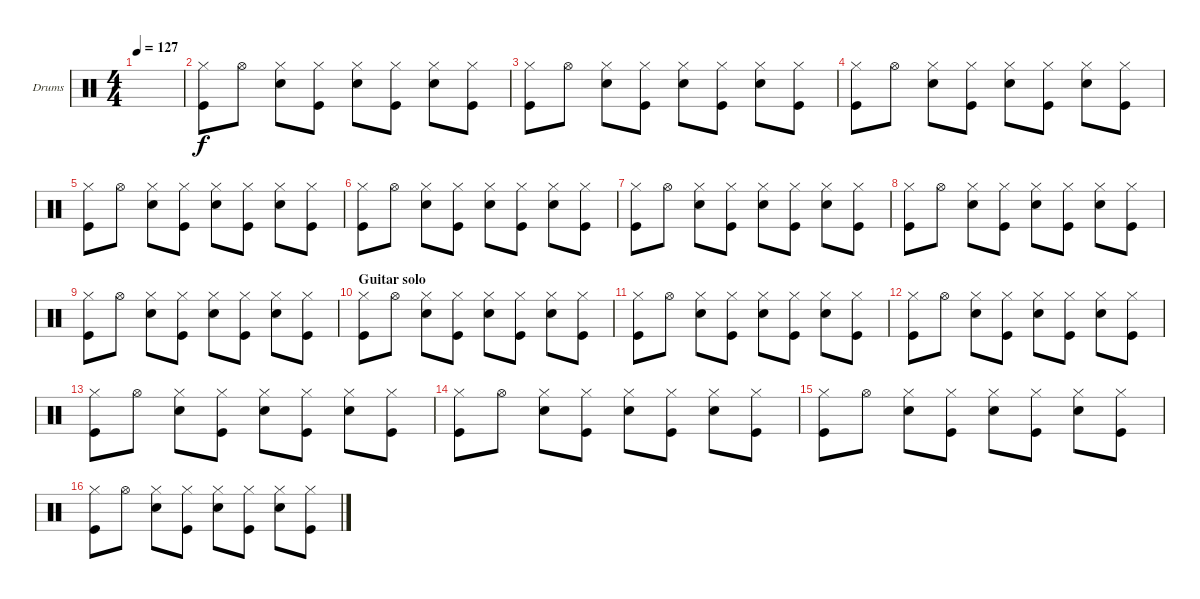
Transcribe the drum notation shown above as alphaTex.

\bracketExtendMode groupsimilarinstruments
\firstSystemTrackNameOrientation horizontal
\otherSystemsTrackNameOrientation horizontal
\track ("Drumkit" "Drums") {instrument percussion}
\staff {score}
\articulation defaults
\ts (4 4)
\tempo 127
\clef neutral
\ks c
|
("Hi-Hat (closed)" "Kick (hit)").8 "Hi-Hat (open)".8 ("Hi-Hat (closed)" "Snare (hit) 2").8 ("Hi-Hat (closed)" "Kick (hit)").8 ("Hi-Hat (closed)" "Snare (hit) 2").8 ("Hi-Hat (closed)" "Kick (hit)").8 ("Hi-Hat (closed)" "Snare (hit) 2").8 ("Hi-Hat (closed)" "Kick (hit)").8 |
("Hi-Hat (closed)" "Kick (hit)").8 "Hi-Hat (open)".8 ("Hi-Hat (closed)" "Snare (hit) 2").8 ("Hi-Hat (closed)" "Kick (hit)").8 ("Hi-Hat (closed)" "Snare (hit) 2").8 ("Hi-Hat (closed)" "Kick (hit)").8 ("Hi-Hat (closed)" "Snare (hit) 2").8 ("Hi-Hat (closed)" "Kick (hit)").8 |
("Hi-Hat (closed)" "Kick (hit)").8 "Hi-Hat (open)".8 ("Hi-Hat (closed)" "Snare (hit) 2").8 ("Hi-Hat (closed)" "Kick (hit)").8 ("Hi-Hat (closed)" "Snare (hit) 2").8 ("Hi-Hat (closed)" "Kick (hit)").8 ("Hi-Hat (closed)" "Snare (hit) 2").8 ("Hi-Hat (closed)" "Kick (hit)").8 |
("Hi-Hat (closed)" "Kick (hit)").8 "Hi-Hat (open)".8 ("Hi-Hat (closed)" "Snare (hit) 2").8 ("Hi-Hat (closed)" "Kick (hit)").8 ("Hi-Hat (closed)" "Snare (hit) 2").8 ("Hi-Hat (closed)" "Kick (hit)").8 ("Hi-Hat (closed)" "Snare (hit) 2").8 ("Hi-Hat (closed)" "Kick (hit)").8 |
("Hi-Hat (closed)" "Kick (hit)").8 "Hi-Hat (open)".8 ("Hi-Hat (closed)" "Snare (hit) 2").8 ("Hi-Hat (closed)" "Kick (hit)").8 ("Hi-Hat (closed)" "Snare (hit) 2").8 ("Hi-Hat (closed)" "Kick (hit)").8 ("Hi-Hat (closed)" "Snare (hit) 2").8 ("Hi-Hat (closed)" "Kick (hit)").8 |
("Hi-Hat (closed)" "Kick (hit)").8 "Hi-Hat (open)".8 ("Hi-Hat (closed)" "Snare (hit) 2").8 ("Hi-Hat (closed)" "Kick (hit)").8 ("Hi-Hat (closed)" "Snare (hit) 2").8 ("Hi-Hat (closed)" "Kick (hit)").8 ("Hi-Hat (closed)" "Snare (hit) 2").8 ("Hi-Hat (closed)" "Kick (hit)").8 |
("Hi-Hat (closed)" "Kick (hit)").8 "Hi-Hat (open)".8 ("Hi-Hat (closed)" "Snare (hit) 2").8 ("Hi-Hat (closed)" "Kick (hit)").8 ("Hi-Hat (closed)" "Snare (hit) 2").8 ("Hi-Hat (closed)" "Kick (hit)").8 ("Hi-Hat (closed)" "Snare (hit) 2").8 ("Hi-Hat (closed)" "Kick (hit)").8 |
("Hi-Hat (closed)" "Kick (hit)").8 "Hi-Hat (open)".8 ("Hi-Hat (closed)" "Snare (hit) 2").8 ("Hi-Hat (closed)" "Kick (hit)").8 ("Hi-Hat (closed)" "Snare (hit) 2").8 ("Hi-Hat (closed)" "Kick (hit)").8 ("Hi-Hat (closed)" "Snare (hit) 2").8 ("Hi-Hat (closed)" "Kick (hit)").8 |
\section ("" "Guitar solo")
("Hi-Hat (closed)" "Kick (hit)").8 "Hi-Hat (open)".8 ("Hi-Hat (closed)" "Snare (hit) 2").8 ("Hi-Hat (closed)" "Kick (hit)").8 ("Hi-Hat (closed)" "Snare (hit) 2").8 ("Hi-Hat (closed)" "Kick (hit)").8 ("Hi-Hat (closed)" "Snare (hit) 2").8 ("Hi-Hat (closed)" "Kick (hit)").8 |
("Hi-Hat (closed)" "Kick (hit)").8 "Hi-Hat (open)".8 ("Hi-Hat (closed)" "Snare (hit) 2").8 ("Hi-Hat (closed)" "Kick (hit)").8 ("Hi-Hat (closed)" "Snare (hit) 2").8 ("Hi-Hat (closed)" "Kick (hit)").8 ("Hi-Hat (closed)" "Snare (hit) 2").8 ("Hi-Hat (closed)" "Kick (hit)").8 |
("Hi-Hat (closed)" "Kick (hit)").8 "Hi-Hat (open)".8 ("Hi-Hat (closed)" "Snare (hit) 2").8 ("Hi-Hat (closed)" "Kick (hit)").8 ("Hi-Hat (closed)" "Snare (hit) 2").8 ("Hi-Hat (closed)" "Kick (hit)").8 ("Hi-Hat (closed)" "Snare (hit) 2").8 ("Hi-Hat (closed)" "Kick (hit)").8 |
("Hi-Hat (closed)" "Kick (hit)").8 "Hi-Hat (open)".8 ("Hi-Hat (closed)" "Snare (hit) 2").8 ("Hi-Hat (closed)" "Kick (hit)").8 ("Hi-Hat (closed)" "Snare (hit) 2").8 ("Hi-Hat (closed)" "Kick (hit)").8 ("Hi-Hat (closed)" "Snare (hit) 2").8 ("Hi-Hat (closed)" "Kick (hit)").8 |
("Hi-Hat (closed)" "Kick (hit)").8 "Hi-Hat (open)".8 ("Hi-Hat (closed)" "Snare (hit) 2").8 ("Hi-Hat (closed)" "Kick (hit)").8 ("Hi-Hat (closed)" "Snare (hit) 2").8 ("Hi-Hat (closed)" "Kick (hit)").8 ("Hi-Hat (closed)" "Snare (hit) 2").8 ("Hi-Hat (closed)" "Kick (hit)").8 |
("Hi-Hat (closed)" "Kick (hit)").8 "Hi-Hat (open)".8 ("Hi-Hat (closed)" "Snare (hit) 2").8 ("Hi-Hat (closed)" "Kick (hit)").8 ("Hi-Hat (closed)" "Snare (hit) 2").8 ("Hi-Hat (closed)" "Kick (hit)").8 ("Hi-Hat (closed)" "Snare (hit) 2").8 ("Hi-Hat (closed)" "Kick (hit)").8 |
("Hi-Hat (closed)" "Kick (hit)").8 "Hi-Hat (open)".8 ("Hi-Hat (closed)" "Snare (hit) 2").8 ("Hi-Hat (closed)" "Kick (hit)").8 ("Hi-Hat (closed)" "Snare (hit) 2").8 ("Hi-Hat (closed)" "Kick (hit)").8 ("Hi-Hat (closed)" "Snare (hit) 2").8 ("Hi-Hat (closed)" "Kick (hit)").8
